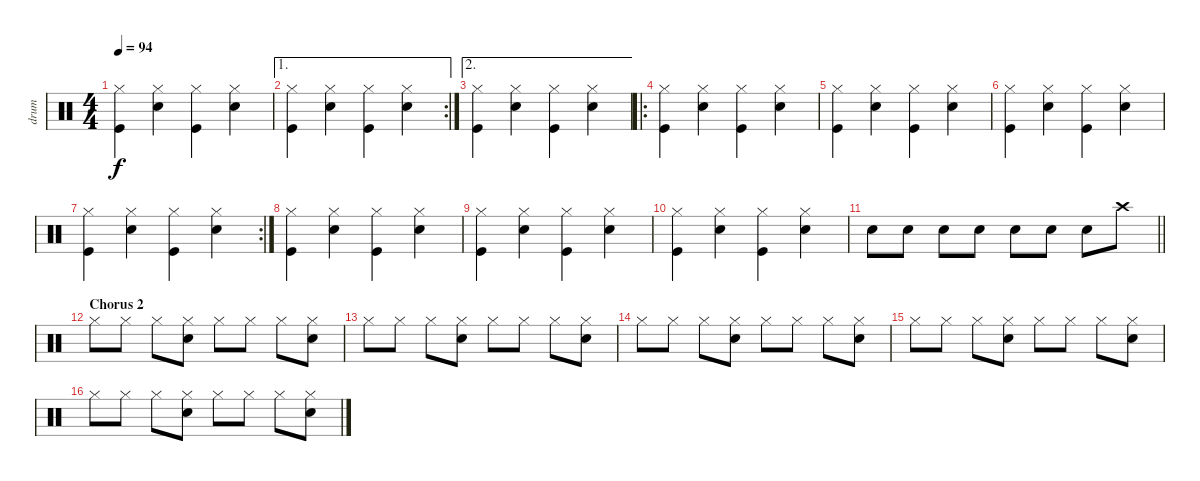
\track ("drum" "drum") {instrument percussion}
\staff {score}
\articulation defaults
\ts (4 4)
\tempo 94
\clef neutral
\ks c
("Hi-Hat (closed)" "Kick (hit)").4{dy f} ("Hi-Hat (closed)" "Snare (hit) 2").4 ("Hi-Hat (closed)" "Kick (hit)").4 ("Hi-Hat (closed)" "Snare (hit) 2").4 |
\ae 1
\rc 2
("Hi-Hat (closed)" "Kick (hit)").4 ("Hi-Hat (closed)" "Snare (hit) 2").4 ("Hi-Hat (closed)" "Kick (hit)").4 ("Hi-Hat (closed)" "Snare (hit) 2").4 |
\ae 2
("Hi-Hat (closed)" "Kick (hit)").4 ("Hi-Hat (closed)" "Snare (hit) 2").4 ("Hi-Hat (closed)" "Kick (hit)").4 ("Hi-Hat (closed)" "Snare (hit) 2").4 |
\ro
("Hi-Hat (closed)" "Kick (hit)").4 ("Hi-Hat (closed)" "Snare (hit) 2").4 ("Hi-Hat (closed)" "Kick (hit)").4 ("Hi-Hat (closed)" "Snare (hit) 2").4 |
("Hi-Hat (closed)" "Kick (hit)").4 ("Hi-Hat (closed)" "Snare (hit) 2").4 ("Hi-Hat (closed)" "Kick (hit)").4 ("Hi-Hat (closed)" "Snare (hit) 2").4 |
("Hi-Hat (closed)" "Kick (hit)").4 ("Hi-Hat (closed)" "Snare (hit) 2").4 ("Hi-Hat (closed)" "Kick (hit)").4 ("Hi-Hat (closed)" "Snare (hit) 2").4 |
\rc 2
("Hi-Hat (closed)" "Kick (hit)").4 ("Hi-Hat (closed)" "Snare (hit) 2").4 ("Hi-Hat (closed)" "Kick (hit)").4 ("Hi-Hat (closed)" "Snare (hit) 2").4 |
("Hi-Hat (closed)" "Kick (hit)").4 ("Hi-Hat (closed)" "Snare (hit) 2").4 ("Hi-Hat (closed)" "Kick (hit)").4 ("Hi-Hat (closed)" "Snare (hit) 2").4 |
("Hi-Hat (closed)" "Kick (hit)").4 ("Hi-Hat (closed)" "Snare (hit) 2").4 ("Hi-Hat (closed)" "Kick (hit)").4 ("Hi-Hat (closed)" "Snare (hit) 2").4 |
("Hi-Hat (closed)" "Kick (hit)").4 ("Hi-Hat (closed)" "Snare (hit) 2").4 ("Hi-Hat (closed)" "Kick (hit)").4 ("Hi-Hat (closed)" "Snare (hit) 2").4 |
\barLineRight lightlight "Snare (hit) 2".8 "Snare (hit) 2".8 "Snare (hit) 2".8 "Snare (hit) 2".8 "Snare (hit) 2".8 "Snare (hit) 2".8 "Snare (hit) 2".8 "Crash high (hit)".8
|
\section ("" "Chorus 2")
"Hi-Hat (closed)".8 "Hi-Hat (closed)".8 "Hi-Hat (closed)".8 ("Hi-Hat (closed)" "Snare (hit) 2").8 "Hi-Hat (closed)".8 "Hi-Hat (closed)".8 "Hi-Hat (closed)".8 ("Hi-Hat (closed)" "Snare (hit) 2").8 |
"Hi-Hat (closed)".8 "Hi-Hat (closed)".8 "Hi-Hat (closed)".8 ("Hi-Hat (closed)" "Snare (hit) 2").8 "Hi-Hat (closed)".8 "Hi-Hat (closed)".8 "Hi-Hat (closed)".8 ("Hi-Hat (closed)" "Snare (hit) 2").8 |
"Hi-Hat (closed)".8 "Hi-Hat (closed)".8 "Hi-Hat (closed)".8 ("Hi-Hat (closed)" "Snare (hit) 2").8 "Hi-Hat (closed)".8 "Hi-Hat (closed)".8 "Hi-Hat (closed)".8 ("Hi-Hat (closed)" "Snare (hit) 2").8 |
"Hi-Hat (closed)".8 "Hi-Hat (closed)".8 "Hi-Hat (closed)".8 ("Hi-Hat (closed)" "Snare (hit) 2").8 "Hi-Hat (closed)".8 "Hi-Hat (closed)".8 "Hi-Hat (closed)".8 ("Hi-Hat (closed)" "Snare (hit) 2").8 |
"Hi-Hat (closed)".8 "Hi-Hat (closed)".8 "Hi-Hat (closed)".8 ("Hi-Hat (closed)" "Snare (hit) 2").8 "Hi-Hat (closed)".8 "Hi-Hat (closed)".8 "Hi-Hat (closed)".8 ("Hi-Hat (closed)" "Snare (hit) 2").8
